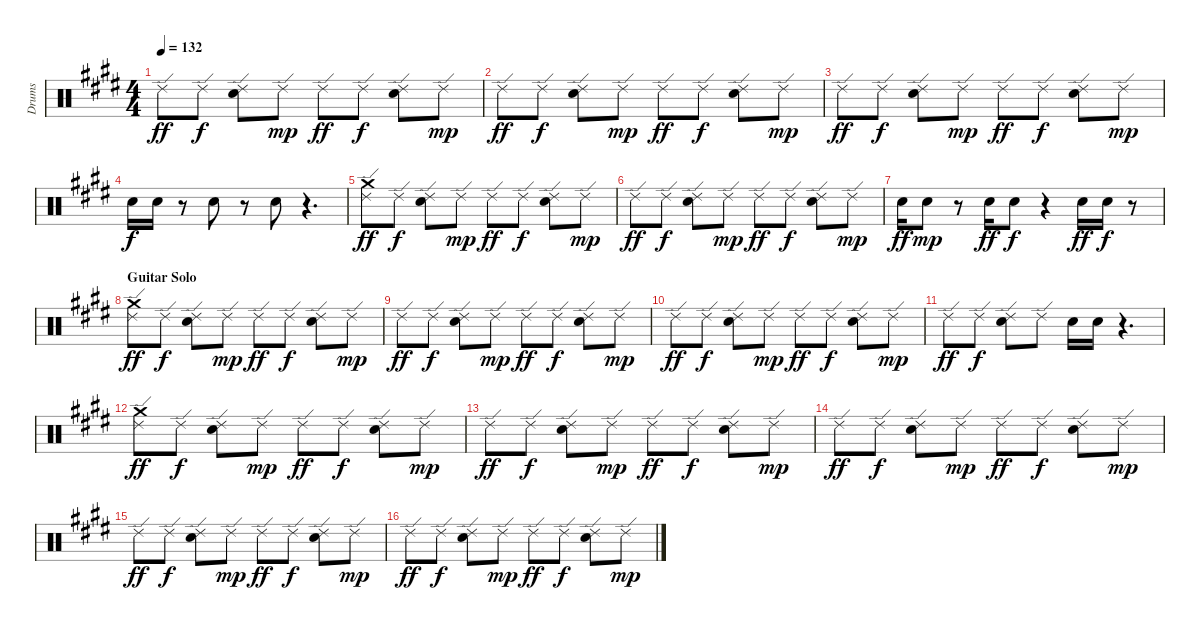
\track ("Drums" "Drums") {instrument percussion}
\staff {score}
\articulation defaults
\ts (4 4)
\tempo 132
\clef neutral
\ks e "Ride (edge) 2".8{dy ff} "Ride (edge) 2".8{dy f}
("Electric Snare (hit)" "Ride (edge) 2").8 "Ride (edge) 2".8{dy mp} "Ride (edge) 2".8{dy ff} "Ride (edge) 2".8{dy f} ("Electric Snare (hit)" "Ride (edge) 2").8 "Ride (edge) 2".8{dy mp} |
"Ride (edge) 2".8{dy ff} "Ride (edge) 2".8{dy f} ("Electric Snare (hit)" "Ride (edge) 2").8 "Ride (edge) 2".8{dy mp} "Ride (edge) 2".8{dy ff} "Ride (edge) 2".8{dy f} ("Electric Snare (hit)" "Ride (edge) 2").8 "Ride (edge) 2".8{dy mp} |
"Ride (edge) 2".8{dy ff} "Ride (edge) 2".8{dy f} ("Electric Snare (hit)" "Ride (edge) 2").8 "Ride (edge) 2".8{dy mp} "Ride (edge) 2".8{dy ff} "Ride (edge) 2".8{dy f} ("Electric Snare (hit)" "Ride (edge) 2").8 "Ride (edge) 2".8{dy mp} |
"Electric Snare (hit)".16{dy f} "Electric Snare (hit)".16 r.8 "Electric Snare (hit)".8 r.8 "Electric Snare (hit)".8 r.4{d} |
("Crash medium (hit)" "Ride (edge) 2").8{dy ff} "Ride (edge) 2".8{dy f} ("Electric Snare (hit)" "Ride (edge) 2").8 "Ride (edge) 2".8{dy mp} "Ride (edge) 2".8{dy ff} "Ride (edge) 2".8{dy f} ("Electric Snare (hit)" "Ride (edge) 2").8 "Ride (edge) 2".8{dy mp} |
"Ride (edge) 2".8{dy ff} "Ride (edge) 2".8{dy f} ("Electric Snare (hit)" "Ride (edge) 2").8 "Ride (edge) 2".8{dy mp} "Ride (edge) 2".8{dy ff} "Ride (edge) 2".8{dy f} ("Electric Snare (hit)" "Ride (edge) 2").8 "Ride (edge) 2".8{dy mp} |
"Electric Snare (hit)".16{dy ff} "Electric Snare (hit)".8{dy mp} r.8 "Electric Snare (hit)".16{dy ff} "Electric Snare (hit)".8{dy f} r.4 "Electric Snare (hit)".16{dy ff} "Electric Snare (hit)".16{dy f} r.8 |
\section ("" "Guitar Solo")
("Crash medium (hit)" "Ride (edge) 2").8{dy ff} "Ride (edge) 2".8{dy f} ("Electric Snare (hit)" "Ride (edge) 2").8 "Ride (edge) 2".8{dy mp} "Ride (edge) 2".8{dy ff} "Ride (edge) 2".8{dy f} ("Electric Snare (hit)" "Ride (edge) 2").8 "Ride (edge) 2".8{dy mp} |
"Ride (edge) 2".8{dy ff} "Ride (edge) 2".8{dy f} ("Electric Snare (hit)" "Ride (edge) 2").8 "Ride (edge) 2".8{dy mp} "Ride (edge) 2".8{dy ff} "Ride (edge) 2".8{dy f} ("Electric Snare (hit)" "Ride (edge) 2").8 "Ride (edge) 2".8{dy mp} |
"Ride (edge) 2".8{dy ff} "Ride (edge) 2".8{dy f} ("Electric Snare (hit)" "Ride (edge) 2").8 "Ride (edge) 2".8{dy mp} "Ride (edge) 2".8{dy ff} "Ride (edge) 2".8{dy f} ("Electric Snare (hit)" "Ride (edge) 2").8 "Ride (edge) 2".8{dy mp} |
"Ride (edge) 2".8{dy ff} "Ride (edge) 2".8{dy f} ("Electric Snare (hit)" "Ride (edge) 2").8 "Ride (edge) 2".8 "Electric Snare (hit)".16 "Electric Snare (hit)".16 r.4{d} |
("Crash medium (hit)" "Ride (edge) 2").8{dy ff} "Ride (edge) 2".8{dy f} ("Electric Snare (hit)" "Ride (edge) 2").8 "Ride (edge) 2".8{dy mp} "Ride (edge) 2".8{dy ff} "Ride (edge) 2".8{dy f} ("Electric Snare (hit)" "Ride (edge) 2").8 "Ride (edge) 2".8{dy mp} |
"Ride (edge) 2".8{dy ff} "Ride (edge) 2".8{dy f} ("Electric Snare (hit)" "Ride (edge) 2").8 "Ride (edge) 2".8{dy mp} "Ride (edge) 2".8{dy ff} "Ride (edge) 2".8{dy f} ("Electric Snare (hit)" "Ride (edge) 2").8 "Ride (edge) 2".8{dy mp} |
"Ride (edge) 2".8{dy ff} "Ride (edge) 2".8{dy f} ("Electric Snare (hit)" "Ride (edge) 2").8 "Ride (edge) 2".8{dy mp} "Ride (edge) 2".8{dy ff} "Ride (edge) 2".8{dy f} ("Electric Snare (hit)" "Ride (edge) 2").8 "Ride (edge) 2".8{dy mp} |
"Ride (edge) 2".8{dy ff} "Ride (edge) 2".8{dy f} ("Electric Snare (hit)" "Ride (edge) 2").8 "Ride (edge) 2".8{dy mp} "Ride (edge) 2".8{dy ff} "Ride (edge) 2".8{dy f} ("Electric Snare (hit)" "Ride (edge) 2").8 "Ride (edge) 2".8{dy mp} |
"Ride (edge) 2".8{dy ff} "Ride (edge) 2".8{dy f} ("Electric Snare (hit)" "Ride (edge) 2").8 "Ride (edge) 2".8{dy mp} "Ride (edge) 2".8{dy ff} "Ride (edge) 2".8{dy f} ("Electric Snare (hit)" "Ride (edge) 2").8 "Ride (edge) 2".8{dy mp}
